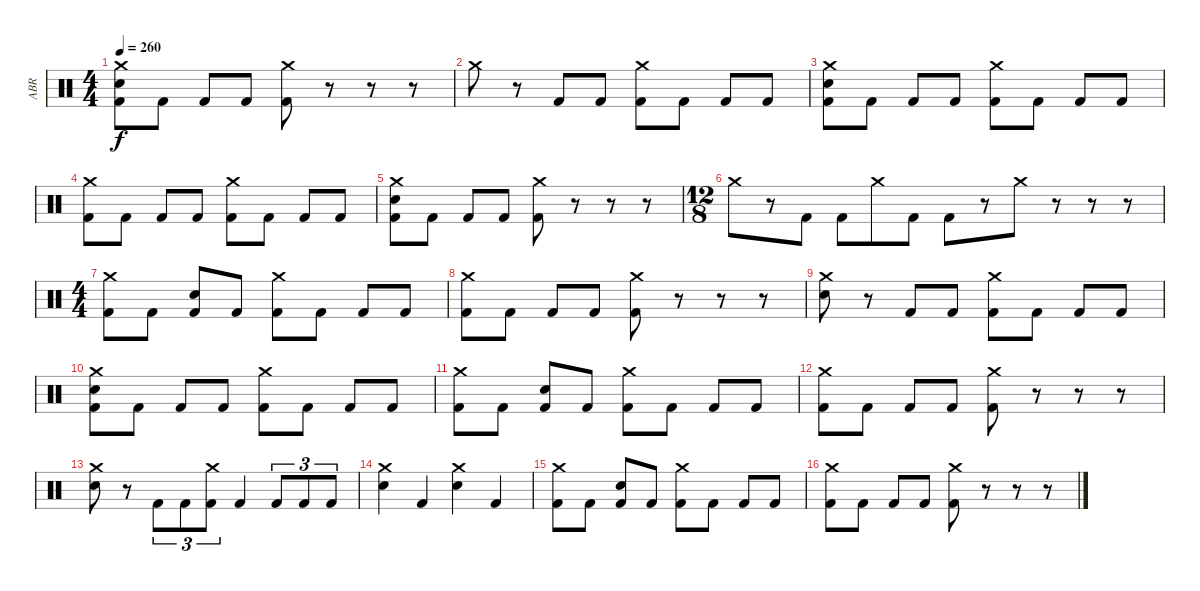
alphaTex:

\track ("ABR" "ABR") {instrument percussion}
\staff {score}
\articulation defaults
\ts (4 4)
\tempo 260
\clef neutral
\ks c
("Crash medium (hit)" "Snare (hit) 2" "Kick (hit) 2").8{dy f} "Kick (hit) 2".8 "Kick (hit) 2".8 "Kick (hit) 2".8 ("Crash medium (hit)" "Kick (hit) 2").8 r.8 r.8 r.8 |
"Crash medium (hit)".8 r.8 "Kick (hit) 2".8 "Kick (hit) 2".8 ("Crash medium (hit)" "Kick (hit) 2").8 "Kick (hit) 2".8 "Kick (hit) 2".8 "Kick (hit) 2".8 |
("Crash medium (hit)" "Snare (hit) 2" "Kick (hit) 2").8 "Kick (hit) 2".8 "Kick (hit) 2".8 "Kick (hit) 2".8 ("Crash medium (hit)" "Kick (hit) 2").8 "Kick (hit) 2".8 "Kick (hit) 2".8 "Kick (hit) 2".8 |
("Crash medium (hit)" "Kick (hit) 2").8 "Kick (hit) 2".8 "Kick (hit) 2".8 "Kick (hit) 2".8 ("Crash medium (hit)" "Kick (hit) 2").8 "Kick (hit) 2".8 "Kick (hit) 2".8 "Kick (hit) 2".8 |
("Crash medium (hit)" "Snare (hit) 2" "Kick (hit) 2").8 "Kick (hit) 2".8 "Kick (hit) 2".8 "Kick (hit) 2".8 ("Crash medium (hit)" "Kick (hit) 2").8 r.8 r.8 r.8 |
\ts (12 8)
"Crash medium (hit)".8 r.8 "Kick (hit) 2".8 "Kick (hit) 2".8 "Crash medium (hit)".8 "Kick (hit) 2".8 "Kick (hit) 2".8 r.8 "Crash medium (hit)".8 r.8 r.8 r.8 |
\ts (4 4)
("Crash medium (hit)" "Kick (hit) 2").8 "Kick (hit) 2".8 ("Snare (hit) 2" "Kick (hit) 2").8 "Kick (hit) 2".8 ("Crash medium (hit)" "Kick (hit) 2").8 "Kick (hit) 2".8 "Kick (hit) 2".8 "Kick (hit) 2".8 |
("Crash medium (hit)" "Kick (hit) 2").8 "Kick (hit) 2".8 "Kick (hit) 2".8 "Kick (hit) 2".8 ("Crash medium (hit)" "Kick (hit) 2").8 r.8 r.8 r.8 |
("Crash medium (hit)" "Snare (hit) 2").8 r.8 "Kick (hit) 2".8 "Kick (hit) 2".8 ("Crash medium (hit)" "Kick (hit) 2").8 "Kick (hit) 2".8 "Kick (hit) 2".8 "Kick (hit) 2".8 |
("Crash medium (hit)" "Snare (hit) 2" "Kick (hit) 2").8 "Kick (hit) 2".8 "Kick (hit) 2".8 "Kick (hit) 2".8 ("Crash medium (hit)" "Kick (hit) 2").8 "Kick (hit) 2".8 "Kick (hit) 2".8 "Kick (hit) 2".8 |
("Crash medium (hit)" "Kick (hit) 2").8 "Kick (hit) 2".8 ("Snare (hit) 2" "Kick (hit) 2").8 "Kick (hit) 2".8 ("Crash medium (hit)" "Kick (hit) 2").8 "Kick (hit) 2".8 "Kick (hit) 2".8 "Kick (hit) 2".8 |
("Crash medium (hit)" "Kick (hit) 2").8 "Kick (hit) 2".8 "Kick (hit) 2".8 "Kick (hit) 2".8 ("Crash medium (hit)" "Kick (hit) 2").8 r.8 r.8 r.8 |
("Crash medium (hit)" "Snare (hit) 2").8 r.8 "Kick (hit) 2".8{tu (3 2)} "Kick (hit) 2".8{tu (3 2)} ("Crash medium (hit)" "Kick (hit) 2").8{tu (3 2)} "Kick (hit) 2".4 "Kick (hit) 2".8{tu (3 2)} "Kick (hit) 2".8{tu (3 2)} "Kick (hit) 2".8{tu (3 2)} |
("Crash medium (hit)" "Snare (hit) 2").4 "Kick (hit) 2".4 ("Crash medium (hit)" "Snare (hit) 2").4 "Kick (hit) 2".4 |
("Crash medium (hit)" "Kick (hit) 2").8 "Kick (hit) 2".8 ("Snare (hit) 2" "Kick (hit) 2").8 "Kick (hit) 2".8 ("Crash medium (hit)" "Kick (hit) 2").8 "Kick (hit) 2".8 "Kick (hit) 2".8 "Kick (hit) 2".8 |
("Crash medium (hit)" "Kick (hit) 2").8 "Kick (hit) 2".8 "Kick (hit) 2".8 "Kick (hit) 2".8 ("Crash medium (hit)" "Kick (hit) 2").8 r.8 r.8 r.8
